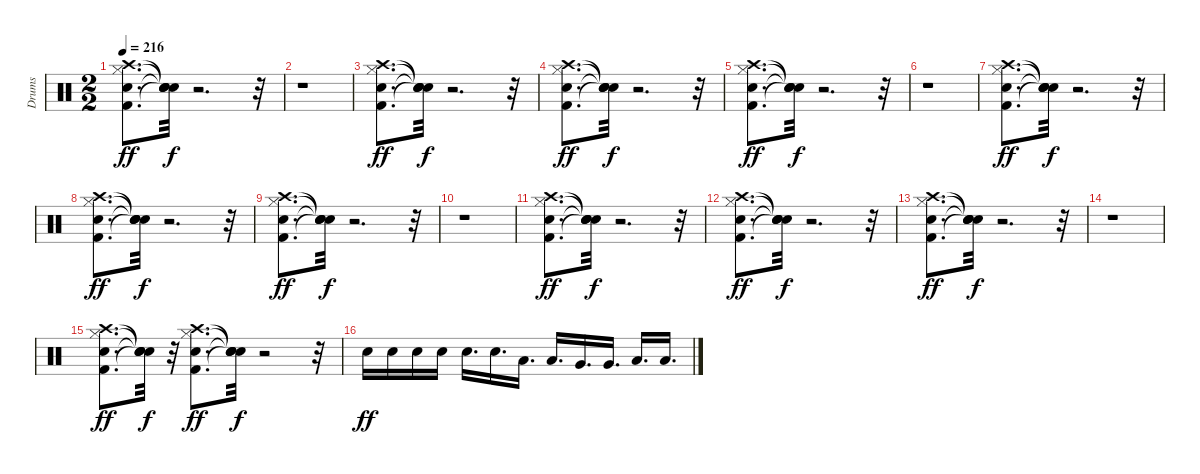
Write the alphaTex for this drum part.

\track ("Drums" "Drums") {instrument percussion}
\staff {score}
\articulation defaults
\ts (2 2)
\tempo 216
\clef neutral
\ks c
("Kick (hit) 2" "Snare (hit) 2" "Hi-Hat (closed)" "Crash high (hit)").8{d dy ff} ("Snare (hit)"{t} "Snare (hit)"{t} "Snare (hit)"{t} "Snare (hit)"{t}).32{dy f} r.2{d} r.32 |
r.1 |
("Kick (hit) 2" "Snare (hit) 2" "Hi-Hat (closed)" "Crash high (hit)").8{d dy ff} ("Snare (hit)"{t} "Snare (hit)"{t} "Snare (hit)"{t} "Snare (hit)"{t}).32{dy f} r.2{d} r.32 |
("Kick (hit) 2" "Snare (hit) 2" "Hi-Hat (closed)" "Crash high (hit)").8{d dy ff} ("Snare (hit)"{t} "Snare (hit)"{t} "Snare (hit)"{t} "Snare (hit)"{t}).32{dy f} r.2{d} r.32 |
("Kick (hit) 2" "Snare (hit) 2" "Hi-Hat (closed)" "Crash high (hit)").8{d dy ff} ("Snare (hit)"{t} "Snare (hit)"{t} "Snare (hit)"{t} "Snare (hit)"{t}).32{dy f} r.2{d} r.32 |
r.1 |
("Kick (hit) 2" "Snare (hit) 2" "Hi-Hat (closed)" "Crash high (hit)").8{d dy ff} ("Snare (hit)"{t} "Snare (hit)"{t} "Snare (hit)"{t} "Snare (hit)"{t}).32{dy f} r.2{d} r.32 |
("Kick (hit) 2" "Snare (hit) 2" "Hi-Hat (closed)" "Crash high (hit)").8{d dy ff} ("Snare (hit)"{t} "Snare (hit)"{t} "Snare (hit)"{t} "Snare (hit)"{t}).32{dy f} r.2{d} r.32 |
("Kick (hit) 2" "Snare (hit) 2" "Hi-Hat (closed)" "Crash high (hit)").8{d dy ff} ("Snare (hit)"{t} "Snare (hit)"{t} "Snare (hit)"{t} "Snare (hit)"{t}).32{dy f} r.2{d} r.32 |
r.1 |
("Kick (hit) 2" "Snare (hit) 2" "Hi-Hat (closed)" "Crash high (hit)").8{d dy ff} ("Snare (hit)"{t} "Snare (hit)"{t} "Snare (hit)"{t} "Snare (hit)"{t}).32{dy f} r.2{d} r.32 |
("Kick (hit) 2" "Snare (hit) 2" "Hi-Hat (closed)" "Crash high (hit)").8{d dy ff} ("Snare (hit)"{t} "Snare (hit)"{t} "Snare (hit)"{t} "Snare (hit)"{t}).32{dy f} r.2{d} r.32 |
("Kick (hit) 2" "Snare (hit) 2" "Hi-Hat (closed)" "Crash high (hit)").8{d dy ff} ("Snare (hit)"{t} "Snare (hit)"{t} "Snare (hit)"{t} "Snare (hit)"{t}).32{dy f} r.2{d} r.32 |
r.1 |
("Kick (hit) 2" "Snare (hit) 2" "Hi-Hat (closed)" "Crash high (hit)").8{d dy ff} ("Snare (hit)"{t} "Snare (hit)"{t} "Snare (hit)"{t} "Snare (hit)"{t}).32{dy f} r.32 ("Kick (hit) 2" "Snare (hit) 2" "Hi-Hat (closed)" "Crash high (hit)").8{d dy ff} ("Snare (hit)"{t} "Snare (hit)"{t} "Snare (hit)"{t} "Snare (hit)"{t}).32{dy f} r.2 r.32 |
"Electric Snare (hit)".16{dy ff} "Electric Snare (hit)".16 "Electric Snare (hit)".16 "Electric Snare (hit)".16 "Electric Snare (hit)".16{d} "Electric Snare (hit)".16{d} "Low Tom (hit)".16{d} "Low Tom (hit)".16{d} "Very Low Tom (hit)".16{d} "Very Low Tom (hit)".16{d} "Low Floor Tom (hit)".16{d} "Low Floor Tom (hit)".16{d}
